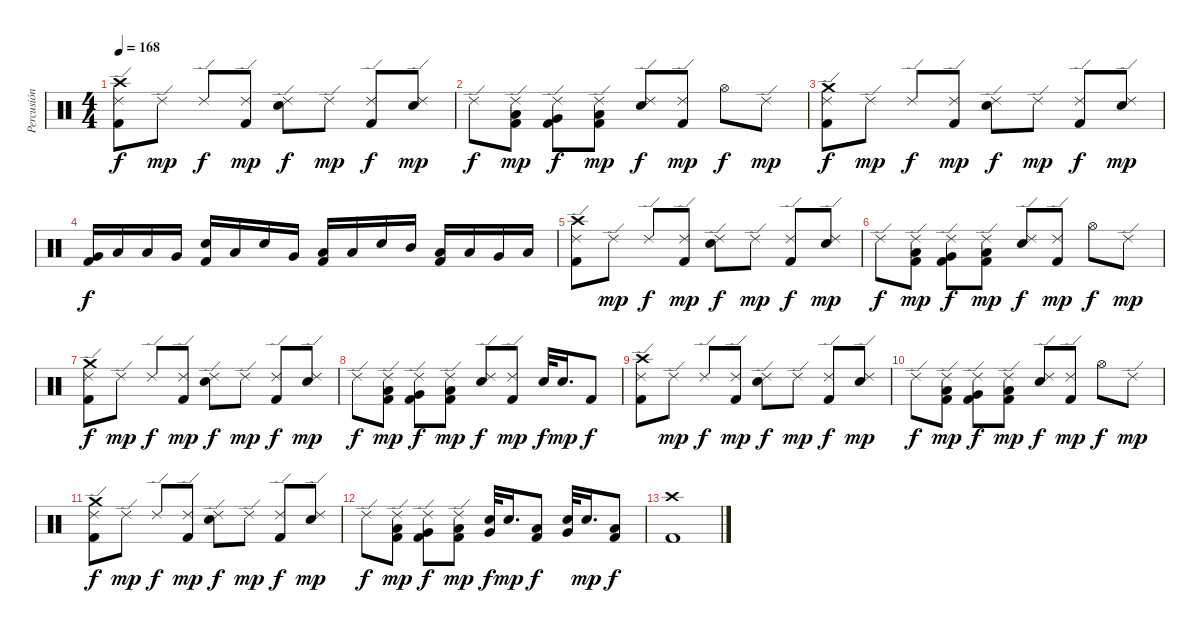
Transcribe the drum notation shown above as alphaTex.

\track ("Percusión" "Percusión") {instrument percussion}
\staff {score}
\articulation defaults
\ts (4 4)
\tempo 168
\clef neutral
\ks c
("Crash high (hit)" "Ride (edge) 2" "Kick (hit) 2").8{dy f} "Ride (edge) 2".8{dy mp} "Ride (edge) 2".8{dy f} ("Ride (edge) 2" "Kick (hit) 2").8{dy mp} ("Ride (edge) 2" "Electric Snare (hit)").8{dy f} "Ride (edge) 2".8{dy mp} ("Ride (edge) 2" "Kick (hit) 2").8{dy f} ("Ride (edge) 2" "Electric Snare (hit)").8{dy mp} |
"Ride (edge) 2".8{dy f} ("Ride (edge) 2" "Low Tom (hit)" "Kick (hit) 2").8{dy mp} ("Ride (edge) 2" "Very Low Tom (hit)" "Kick (hit) 2").8{dy f} ("Ride (edge) 2" "Low Floor Tom (hit)" "Kick (hit) 2").8{dy mp} ("Ride (edge) 2" "Electric Snare (hit)").8{dy f} ("Ride (edge) 2" "Kick (hit) 2").8{dy mp} "Hi-Hat (open)".8{dy f} "Ride (edge) 2".8{dy mp} |
("Crash medium (hit)" "Ride (edge) 2" "Kick (hit) 2").8{dy f} "Ride (edge) 2".8{dy mp} "Ride (edge) 2".8{dy f} ("Ride (edge) 2" "Kick (hit) 2").8{dy mp} ("Ride (edge) 2" "Electric Snare (hit)").8{dy f} "Ride (edge) 2".8{dy mp} ("Ride (edge) 2" "Kick (hit) 2").8{dy f} ("Ride (edge) 2" "Electric Snare (hit)").8{dy mp} |
("Very Low Tom (hit)" "Kick (hit) 2").16{dy f} "Low Tom (hit)".16 "Low Floor Tom (hit)".16 "Very Low Tom (hit)".16 ("Electric Snare (hit)" "Kick (hit) 2").16 "Low Floor Tom (hit)".16 "Electric Snare (hit)".16 "Very Low Tom (hit)".16 ("Low Floor Tom (hit)" "Kick (hit) 2").16 "Low Tom (hit)".16 "Electric Snare (hit)".16 "Mid Tom (hit)".16 ("Low Tom (hit)" "Kick (hit) 2").16 "Low Tom (hit)".16 "Very Low Tom (hit)".16 "Low Floor Tom (hit)".16 |
("Crash high (hit)" "Ride (edge) 2" "Kick (hit) 2").8 "Ride (edge) 2".8{dy mp} "Ride (edge) 2".8{dy f} ("Ride (edge) 2" "Kick (hit) 2").8{dy mp} ("Ride (edge) 2" "Electric Snare (hit)").8{dy f} "Ride (edge) 2".8{dy mp} ("Ride (edge) 2" "Kick (hit) 2").8{dy f} ("Ride (edge) 2" "Electric Snare (hit)").8{dy mp} |
"Ride (edge) 2".8{dy f} ("Ride (edge) 2" "Low Tom (hit)" "Kick (hit) 2").8{dy mp} ("Ride (edge) 2" "Very Low Tom (hit)" "Kick (hit) 2").8{dy f} ("Ride (edge) 2" "Low Floor Tom (hit)" "Kick (hit) 2").8{dy mp} ("Ride (edge) 2" "Electric Snare (hit)").8{dy f} ("Ride (edge) 2" "Kick (hit) 2").8{dy mp} "Hi-Hat (open)".8{dy f} "Ride (edge) 2".8{dy mp} |
("Crash medium (hit)" "Ride (edge) 2" "Kick (hit) 2").8{dy f} "Ride (edge) 2".8{dy mp} "Ride (edge) 2".8{dy f} ("Ride (edge) 2" "Kick (hit) 2").8{dy mp} ("Ride (edge) 2" "Electric Snare (hit)").8{dy f} "Ride (edge) 2".8{dy mp} ("Ride (edge) 2" "Kick (hit) 2").8{dy f} ("Ride (edge) 2" "Electric Snare (hit)").8{dy mp} |
"Ride (edge) 2".8{dy f} ("Ride (edge) 2" "Low Tom (hit)" "Kick (hit) 2").8{dy mp} ("Ride (edge) 2" "Very Low Tom (hit)" "Kick (hit) 2").8{dy f} ("Ride (edge) 2" "Low Floor Tom (hit)" "Kick (hit) 2").8{dy mp} ("Ride (edge) 2" "Electric Snare (hit)").8{dy f} ("Ride (edge) 2" "Kick (hit) 2").8{dy mp} "Electric Snare (hit)".32{dy f} "Electric Snare (hit)".16{d dy mp} "Kick (hit) 2".8{dy f} |
("Crash high (hit)" "Ride (edge) 2" "Kick (hit) 2").8 "Ride (edge) 2".8{dy mp} "Ride (edge) 2".8{dy f} ("Ride (edge) 2" "Kick (hit) 2").8{dy mp} ("Ride (edge) 2" "Electric Snare (hit)").8{dy f} "Ride (edge) 2".8{dy mp} ("Ride (edge) 2" "Kick (hit) 2").8{dy f} ("Ride (edge) 2" "Electric Snare (hit)").8{dy mp} |
"Ride (edge) 2".8{dy f} ("Ride (edge) 2" "Low Tom (hit)" "Kick (hit) 2").8{dy mp} ("Ride (edge) 2" "Very Low Tom (hit)" "Kick (hit) 2").8{dy f} ("Ride (edge) 2" "Low Floor Tom (hit)" "Kick (hit) 2").8{dy mp} ("Ride (edge) 2" "Electric Snare (hit)").8{dy f} ("Ride (edge) 2" "Kick (hit) 2").8{dy mp} "Hi-Hat (open)".8{dy f} "Ride (edge) 2".8{dy mp} |
("Crash medium (hit)" "Ride (edge) 2" "Kick (hit) 2").8{dy f} "Ride (edge) 2".8{dy mp} "Ride (edge) 2".8{dy f} ("Ride (edge) 2" "Kick (hit) 2").8{dy mp} ("Ride (edge) 2" "Electric Snare (hit)").8{dy f} "Ride (edge) 2".8{dy mp} ("Ride (edge) 2" "Kick (hit) 2").8{dy f} ("Ride (edge) 2" "Electric Snare (hit)").8{dy mp} |
"Ride (edge) 2".8{dy f} ("Ride (edge) 2" "Low Tom (hit)" "Kick (hit) 2").8{dy mp} ("Ride (edge) 2" "Very Low Tom (hit)" "Kick (hit) 2").8{dy f} ("Ride (edge) 2" "Low Floor Tom (hit)" "Kick (hit) 2").8{dy mp} ("Very Low Tom (hit)" "Electric Snare (hit)").32{dy f} "Electric Snare (hit)".16{d dy mp} ("Low Floor Tom (hit)" "Kick (hit) 2").8{dy f} ("Very Low Tom (hit)" "Electric Snare (hit)").32 "Electric Snare (hit)".16{d dy mp} ("Low Floor Tom (hit)" "Kick (hit) 2").8{dy f} |
("Crash high (hit)" "Kick (hit) 2").1
